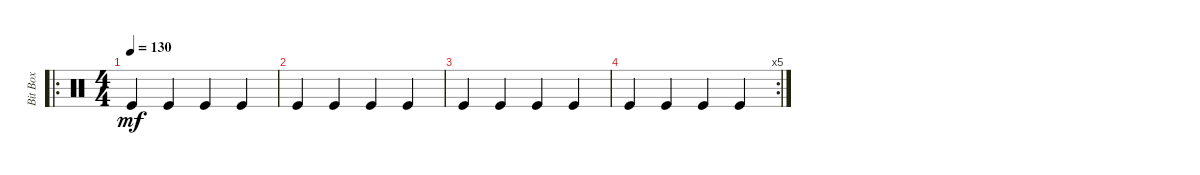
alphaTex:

\track ("Bit Box" "Bit Box") {instrument percussion}
\staff {score}
\articulation defaults
\ro
\ts (4 4)
\tempo 130
\clef neutral
\ks c "Kick (hit)".4{dy mf} "Kick (hit)".4 "Kick (hit)".4 "Kick (hit)".4
|
"Kick (hit)".4 "Kick (hit)".4 "Kick (hit)".4 "Kick (hit)".4 |
"Kick (hit)".4 "Kick (hit)".4 "Kick (hit)".4 "Kick (hit)".4 |
\rc 5 "Kick (hit)".4 "Kick (hit)".4 "Kick (hit)".4 "Kick (hit)".4
